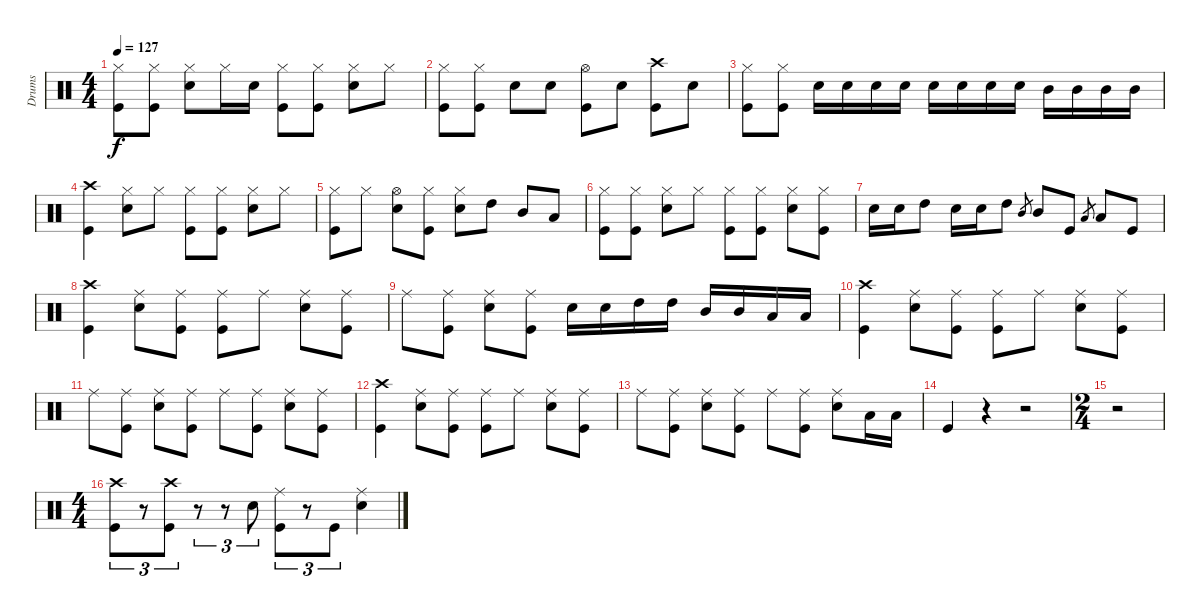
\track ("Drums" "Drums") {instrument percussion}
\staff {score}
\articulation defaults
\ts (4 4)
\tempo 127
\clef neutral
\ks c
("Hi-Hat (closed)" "Kick (hit)").8{dy f} ("Kick (hit)" "Hi-Hat (closed)").8 ("Hi-Hat (closed)" "Snare (hit) 2").8 "Hi-Hat (closed)".16 "Snare (hit) 2".16 ("Kick (hit)" "Hi-Hat (closed)").8 ("Hi-Hat (closed)" "Kick (hit)").8 ("Snare (hit) 2" "Hi-Hat (closed)").8 "Hi-Hat (closed)".8 |
("Hi-Hat (closed)" "Kick (hit)").8 ("Kick (hit)" "Hi-Hat (closed)").8 "Snare (hit) 2".8 "Snare (hit) 2".8 ("Hi-Hat (open)" "Kick (hit)").8 "Snare (hit) 2".8 ("Crash high (hit)" "Kick (hit)").8 "Snare (hit) 2".8 |
("Hi-Hat (closed)" "Kick (hit)").8 ("Hi-Hat (closed)" "Kick (hit)").8 "Snare (hit) 2".16 "Snare (hit) 2".16 "Snare (hit) 2".16 "Snare (hit) 2".16 "Snare (hit) 2".16 "Snare (hit) 2".16 "Snare (hit) 2".16 "Snare (hit) 2".16 "Mid Tom (hit)".16 "Mid Tom (hit)".16 "Mid Tom (hit)".16 "Mid Tom (hit)".16 |
("Crash high (hit)" "Kick (hit)").4 ("Snare (hit) 2" "Hi-Hat (closed)").8 "Hi-Hat (closed)".8 ("Hi-Hat (closed)" "Kick (hit)").8 ("Kick (hit)" "Hi-Hat (closed)").8 ("Hi-Hat (closed)" "Snare (hit) 2").8 "Hi-Hat (closed)".8 |
("Hi-Hat (closed)" "Kick (hit)").8 "Hi-Hat (closed)".8 ("Hi-Hat (open)" "Snare (hit) 2").8 ("Hi-Hat (closed)" "Kick (hit)").8 ("Hi-Hat (closed)" "Snare (hit) 2").8 "High Tom (hit)".8 "Mid Tom (hit)".8 "Low Tom (hit)".8 |
("Hi-Hat (closed)" "Kick (hit)").8 ("Hi-Hat (closed)" "Kick (hit)").8 ("Hi-Hat (closed)" "Snare (hit) 2").8 "Hi-Hat (closed)".8 ("Hi-Hat (closed)" "Kick (hit)").8 ("Hi-Hat (closed)" "Kick (hit)").8 ("Hi-Hat (closed)" "Snare (hit) 2").8 ("Hi-Hat (closed)" "Kick (hit)").8 |
"Snare (hit) 2".16 "Snare (hit) 2".16 "High Tom (hit)".8 "Snare (hit) 2".16 "Snare (hit) 2".16 "High Tom (hit)".8 "Mid Tom (hit)".8{gr} "Mid Tom (hit)".8 "Kick (hit)".8 "Low Tom (hit)".8{gr} "Low Tom (hit)".8 "Kick (hit)".8 |
("Crash high (hit)" "Kick (hit)").4 ("Ride (middle)" "Snare (hit) 2").8 ("Ride (middle)" "Kick (hit)").8 ("Ride (middle)" "Kick (hit)").8 "Ride (middle)".8 ("Ride (middle)" "Snare (hit) 2").8 ("Kick (hit)" "Ride (middle)").8 |
"Ride (middle)".8 ("Ride (middle)" "Kick (hit)").8 ("Snare (hit) 2" "Ride (middle)").8 ("Ride (middle)" "Kick (hit)").8 "Snare (hit) 2".16 "Snare (hit) 2".16 "High Tom (hit)".16 "High Tom (hit)".16 "Mid Tom (hit)".16 "Mid Tom (hit)".16 "Low Tom (hit)".16 "Low Tom (hit)".16 |
("Kick (hit)" "Crash high (hit)").4 ("Ride (middle)" "Snare (hit) 2").8 ("Ride (middle)" "Kick (hit)").8 ("Ride (middle)" "Kick (hit)").8 "Ride (middle)".8 ("Ride (middle)" "Snare (hit) 2").8 ("Ride (middle)" "Kick (hit)").8 |
"Ride (middle)".8 ("Ride (middle)" "Kick (hit)").8 ("Ride (middle)" "Snare (hit) 2").8 ("Ride (middle)" "Kick (hit)").8 "Ride (middle)".8 ("Ride (middle)" "Kick (hit)").8 ("Ride (middle)" "Snare (hit) 2").8 ("Ride (middle)" "Kick (hit)").8 |
("Kick (hit)" "Crash high (hit)").4 ("Ride (middle)" "Snare (hit) 2").8 ("Ride (middle)" "Kick (hit)").8 ("Ride (middle)" "Kick (hit)").8 "Ride (middle)".8 ("Ride (middle)" "Snare (hit) 2").8 ("Ride (middle)" "Kick (hit)").8 |
"Ride (middle)".8 ("Ride (middle)" "Kick (hit)").8 ("Ride (middle)" "Snare (hit) 2").8 ("Ride (middle)" "Kick (hit)").8 "Ride (middle)".8 ("Ride (middle)" "Kick (hit)").8 ("Ride (middle)" "Snare (hit) 2").8 "Low Tom (hit)".16 "Low Tom (hit)".16 |
"Kick (hit)".4 r.4 r.2 |
\ts (2 4)
r.2 |
\ts (4 4)
("Crash high (hit)" "Kick (hit)").8{tu (3 2)} r.8{tu (3 2)} ("Crash high (hit)" "Kick (hit)").8{tu (3 2)} r.8{tu (3 2)} r.8{tu (3 2)} "Snare (hit) 2".8{tu (3 2)} ("Ride (middle)" "Kick (hit)").8{tu (3 2)} r.8{tu (3 2)} "Kick (hit)".8{tu (3 2)} ("Snare (hit) 2" "Ride (middle)").4
